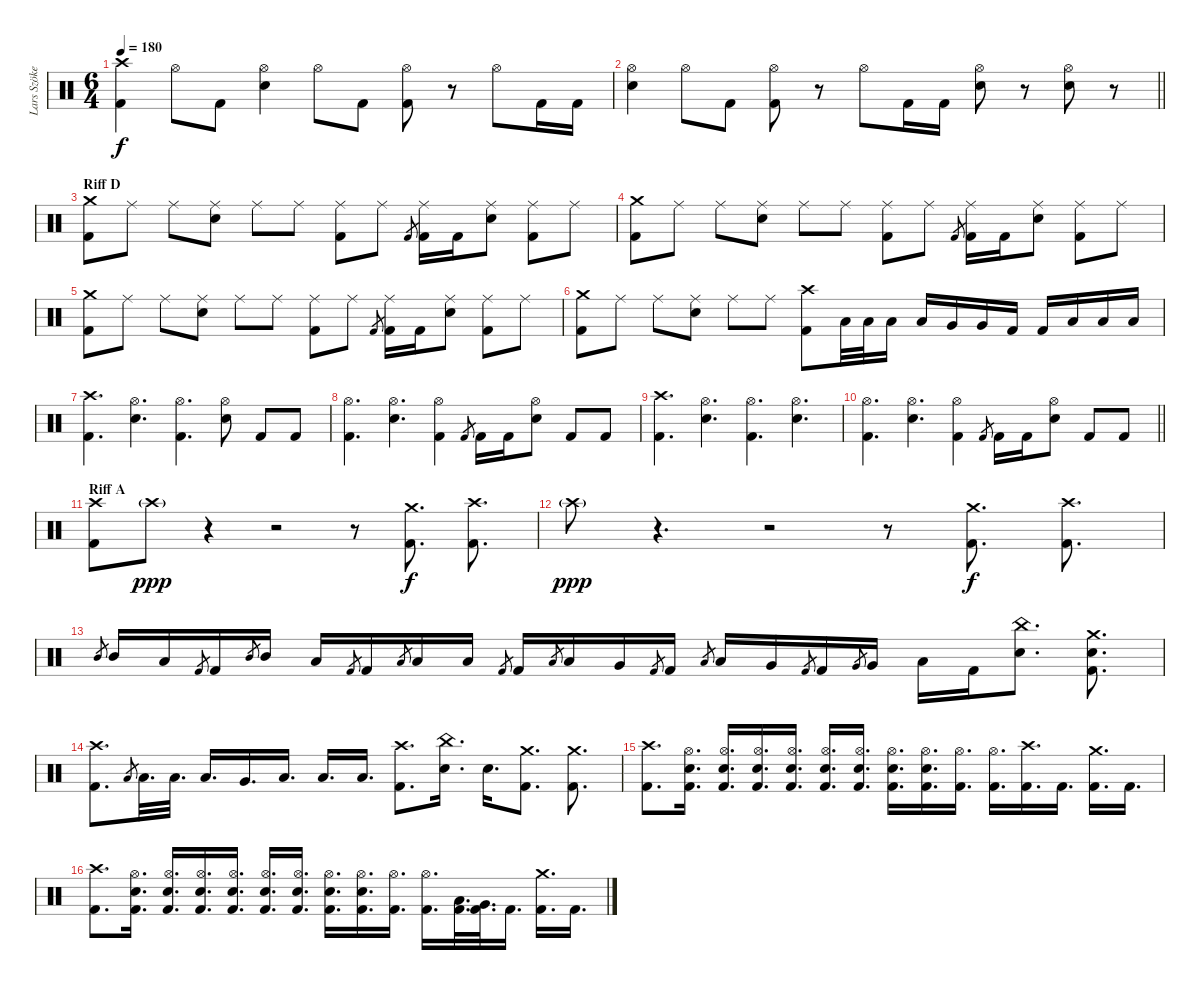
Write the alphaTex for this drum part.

\track ("Lars Szöke" "Lars Szöke") {instrument percussion}
\staff {score}
\articulation defaults
\ts (6 4)
\tempo 180
\clef neutral
\ks c
("Crash high (hit)" "Kick (hit) 2").4{dy f} "Hi-Hat (open)".8 "Kick (hit) 2".8 ("Hi-Hat (open)" "Snare (hit) 2").4 "Hi-Hat (open)".8 "Kick (hit) 2".8 ("Hi-Hat (open)" "Kick (hit) 2").8 r.8 "Hi-Hat (open)".8 "Kick (hit) 2".16 "Kick (hit) 2".16 |
\barLineRight lightlight
("Hi-Hat (open)" "Snare (hit) 2").4 "Hi-Hat (open)".8 "Kick (hit) 2".8 ("Hi-Hat (open)" "Kick (hit) 2").8 r.8 "Hi-Hat (open)".8 "Kick (hit) 2".16 "Kick (hit) 2".16 ("Hi-Hat (open)" "Snare (hit) 2").8 r.8 ("Hi-Hat (open)" "Snare (hit) 2").8 r.8 |
\section ("" "Riff D")
("Crash medium (hit)" "Kick (hit) 2").8 "Ride (middle)".8 "Ride (middle)".8 ("Ride (middle)" "Snare (hit) 2").8 "Ride (middle)".8 "Ride (middle)".8 ("Ride (middle)" "Kick (hit) 2").8 "Ride (middle)".8 "Kick (hit) 2".8{gr} ("Ride (middle)" "Kick (hit) 2").16 "Kick (hit) 2".16 ("Ride (middle)" "Snare (hit) 2").8 ("Ride (middle)" "Kick (hit) 2").8 "Ride (middle)".8 |
("Crash medium (hit)" "Kick (hit) 2").8 "Ride (middle)".8 "Ride (middle)".8 ("Ride (middle)" "Snare (hit) 2").8 "Ride (middle)".8 "Ride (middle)".8 ("Ride (middle)" "Kick (hit) 2").8 "Ride (middle)".8 "Kick (hit) 2".8{gr} ("Ride (middle)" "Kick (hit) 2").16 "Kick (hit) 2".16 ("Ride (middle)" "Snare (hit) 2").8 ("Ride (middle)" "Kick (hit) 2").8 "Ride (middle)".8 |
("Crash medium (hit)" "Kick (hit) 2").8 "Ride (middle)".8 "Ride (middle)".8 ("Ride (middle)" "Snare (hit) 2").8 "Ride (middle)".8 "Ride (middle)".8 ("Ride (middle)" "Kick (hit) 2").8 "Ride (middle)".8 "Kick (hit) 2".8{gr} ("Ride (middle)" "Kick (hit) 2").16 "Kick (hit) 2".16 ("Ride (middle)" "Snare (hit) 2").8 ("Ride (middle)" "Kick (hit) 2").8 "Ride (middle)".8 |
("Crash medium (hit)" "Kick (hit) 2").8 "Ride (middle)".8 "Ride (middle)".8 ("Ride (middle)" "Snare (hit) 2").8 "Ride (middle)".8 "Ride (middle)".8 ("Crash high (hit)" "Kick (hit) 2").8 "Low Tom (hit)".32 "Low Tom (hit)".32 "Low Tom (hit)".16 "Low Tom (hit)".16 "Very Low Tom (hit)".16 "Very Low Tom (hit)".16 "Kick (hit) 2".16 "Kick (hit) 2".16 "Low Floor Tom (hit)".16 "Low Floor Tom (hit)".16 "Low Floor Tom (hit)".16 |
("Crash high (hit)" "Kick (hit) 2").4{d} ("Hi-Hat (open)" "Snare (hit) 2").4{d} ("Hi-Hat (open)" "Kick (hit) 2").4{d} ("Hi-Hat (open)" "Snare (hit) 2").8 "Kick (hit) 2".8 "Kick (hit) 2".8 |
("Hi-Hat (open)" "Kick (hit) 2").4{d} ("Hi-Hat (open)" "Snare (hit) 2").4{d} ("Hi-Hat (open)" "Kick (hit) 2").4 "Kick (hit) 2".8{gr} "Kick (hit) 2".16 "Kick (hit) 2".16 ("Hi-Hat (open)" "Snare (hit) 2").8 "Kick (hit) 2".8 "Kick (hit) 2".8 |
("Crash high (hit)" "Kick (hit) 2").4{d} ("Hi-Hat (open)" "Snare (hit) 2").4{d} ("Hi-Hat (open)" "Kick (hit) 2").4{d} ("Hi-Hat (open)" "Snare (hit) 2").4{d} |
\barLineRight lightlight
("Hi-Hat (open)" "Kick (hit) 2").4{d} ("Hi-Hat (open)" "Snare (hit) 2").4{d} ("Hi-Hat (open)" "Kick (hit) 2").4 "Kick (hit) 2".8{gr} "Kick (hit) 2".16 "Kick (hit) 2".16 ("Hi-Hat (open)" "Snare (hit) 2").8 "Kick (hit) 2".8 "Kick (hit) 2".8 |
\section ("" "Riff A")
("Crash high (hit)" "Kick (hit) 2").8 "Crash high (hit)"{g}.8{dy ppp} r.4 r.2 r.8 ("Crash medium (hit)" "Kick (hit) 2").8{d dy f} ("Crash high (hit)" "Kick (hit) 2").8{d} |
"Crash high (hit)"{g}.8{dy ppp} r.4{d} r.2 r.8 ("Crash medium (hit)" "Kick (hit) 2").8{d dy f} ("Crash high (hit)" "Kick (hit) 2").8{d} |
"Mid Tom (hit)".8{gr} "Mid Tom (hit)".16 "Low Tom (hit)".16 "Kick (hit) 2".8{gr} "Kick (hit) 2".16 "Mid Tom (hit)".8{gr} "Mid Tom (hit)".16 "Low Tom (hit)".16 "Kick (hit) 2".8{gr} "Kick (hit) 2".16 "Low Tom (hit)".8{gr} "Low Tom (hit)".16 "Low Tom (hit)".16 "Kick (hit) 2".8{gr} "Kick (hit) 2".16 "Low Tom (hit)".8{gr} "Low Tom (hit)".16 "Very Low Tom (hit)".16 "Kick (hit) 2".8{gr} "Kick (hit) 2".16 "Low Tom (hit)".8{gr} "Low Tom (hit)".16 "Very Low Tom (hit)".16 "Kick (hit) 2".8{gr} "Kick (hit) 2".16 "Very Low Tom (hit)".8{gr} "Very Low Tom (hit)".16 "Low Floor Tom (hit)".16 "Kick (hit) 2".16 ("China (hit)" "Snare (hit) 2").8{d} ("Crash medium (hit)" "Snare (hit) 2" "Kick (hit) 2").8{d} |
("Crash high (hit)" "Kick (hit) 2").8{d} "Low Tom (hit)".8{gr} "Low Tom (hit)".32{d} "Low Tom (hit)".32{d} "Low Tom (hit)".16{d} "Very Low Tom (hit)".16{d} "Low Floor Tom (hit)".16{d} "Low Floor Tom (hit)".16{d} "Low Floor Tom (hit)".16{d} ("Crash high (hit)" "Kick (hit) 2").8{d} ("China (hit)" "Snare (hit) 2").16{d} "Snare (hit) 2".16{d} ("Crash medium (hit)" "Kick (hit) 2").8{d} ("Crash medium (hit)" "Kick (hit) 2").8{d} |
("Crash high (hit)" "Kick (hit) 2").8{d} ("Hi-Hat (open)" "Snare (hit) 2" "Kick (hit) 2").16{d} ("Hi-Hat (open)" "Snare (hit) 2" "Kick (hit) 2").16{d} ("Hi-Hat (open)" "Snare (hit) 2" "Kick (hit) 2").16{d} ("Hi-Hat (open)" "Snare (hit) 2" "Kick (hit) 2").16{d} ("Hi-Hat (open)" "Snare (hit) 2" "Kick (hit) 2").16{d} ("Hi-Hat (open)" "Snare (hit) 2" "Kick (hit) 2").16{d} ("Hi-Hat (open)" "Snare (hit) 2" "Kick (hit) 2").16{d} ("Hi-Hat (open)" "Snare (hit) 2" "Kick (hit) 2").16{d} ("Hi-Hat (open)" "Kick (hit) 2").16{d} ("Hi-Hat (open)" "Kick (hit) 2").16{d} ("Crash high (hit)" "Kick (hit) 2").16{d} "Kick (hit) 2".16{d} ("Crash medium (hit)" "Kick (hit) 2").16{d} "Kick (hit) 2".16{d} |
("Crash high (hit)" "Kick (hit) 2").8{d} ("Hi-Hat (open)" "Snare (hit) 2" "Kick (hit) 2").16{d} ("Hi-Hat (open)" "Snare (hit) 2" "Kick (hit) 2").16{d} ("Hi-Hat (open)" "Snare (hit) 2" "Kick (hit) 2").16{d} ("Hi-Hat (open)" "Snare (hit) 2" "Kick (hit) 2").16{d} ("Hi-Hat (open)" "Snare (hit) 2" "Kick (hit) 2").16{d} ("Hi-Hat (open)" "Snare (hit) 2" "Kick (hit) 2").16{d} ("Hi-Hat (open)" "Snare (hit) 2" "Kick (hit) 2").16{d} ("Hi-Hat (open)" "Snare (hit) 2" "Kick (hit) 2").16{d} ("Hi-Hat (open)" "Kick (hit) 2").16{d} ("Hi-Hat (open)" "Kick (hit) 2").16{d} ("Low Tom (hit)" "Kick (hit) 2").32{d} ("Very Low Tom (hit)" "Kick (hit) 2").32{d} "Kick (hit) 2".16{d} ("Crash medium (hit)" "Kick (hit) 2").16{d} "Kick (hit) 2".16{d}
